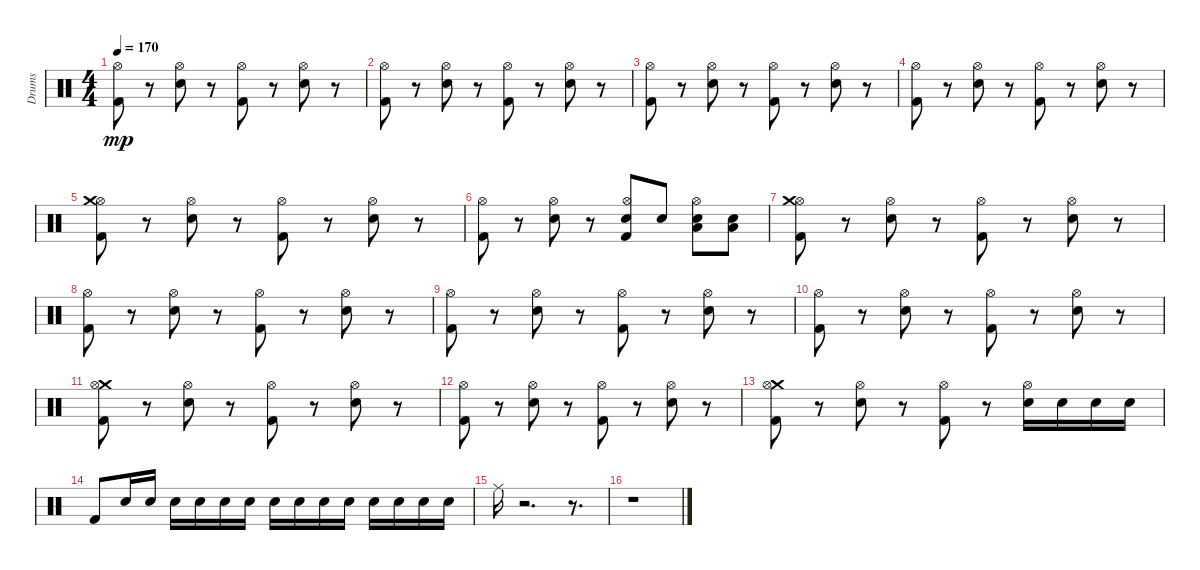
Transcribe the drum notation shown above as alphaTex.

\track ("Drums" "Drums") {instrument percussion}
\staff {score}
\articulation defaults
\ts (4 4)
\tempo 170
\clef neutral
\ks c
("Kick (hit) 2" "Hi-Hat (open)").8{dy mp} r.8 ("Electric Snare (hit)" "Hi-Hat (open)").8 r.8 ("Kick (hit) 2" "Hi-Hat (open)").8 r.8 ("Hi-Hat (open)" "Electric Snare (hit)").8 r.8 |
("Kick (hit) 2" "Hi-Hat (open)").8 r.8 ("Electric Snare (hit)" "Hi-Hat (open)").8 r.8 ("Hi-Hat (open)" "Kick (hit) 2").8 r.8 ("Hi-Hat (open)" "Electric Snare (hit)").8 r.8 |
("Kick (hit) 2" "Hi-Hat (open)").8 r.8 ("Hi-Hat (open)" "Electric Snare (hit)").8 r.8 ("Hi-Hat (open)" "Kick (hit) 2").8 r.8 ("Electric Snare (hit)" "Hi-Hat (open)").8 r.8 |
("Hi-Hat (open)" "Kick (hit) 2").8 r.8 ("Electric Snare (hit)" "Hi-Hat (open)").8 r.8 ("Kick (hit) 2" "Hi-Hat (open)").8 r.8 ("Hi-Hat (open)" "Electric Snare (hit)").8 r.8 |
("Kick (hit) 2" "Hi-Hat (open)" "Crash medium (hit)").8 r.8 ("Electric Snare (hit)" "Hi-Hat (open)").8 r.8 ("Hi-Hat (open)" "Kick (hit) 2").8 r.8 ("Electric Snare (hit)" "Hi-Hat (open)").8 r.8 |
("Hi-Hat (open)" "Kick (hit) 2").8 r.8 ("Electric Snare (hit)" "Hi-Hat (open)").8 r.8 ("Electric Snare (hit)" "Hi-Hat (open)" "Kick (hit) 2").8 "Electric Snare (hit)".8 ("Electric Snare (hit)" "Hi-Hat (open)" "Low Floor Tom (hit)").8 ("Low Floor Tom (hit)" "Electric Snare (hit)").8 |
("Kick (hit) 2" "Hi-Hat (open)" "Crash medium (hit)").8 r.8 ("Hi-Hat (open)" "Electric Snare (hit)").8 r.8 ("Kick (hit) 2" "Hi-Hat (open)").8 r.8 ("Electric Snare (hit)" "Hi-Hat (open)").8 r.8 |
("Hi-Hat (open)" "Kick (hit) 2").8 r.8 ("Electric Snare (hit)" "Hi-Hat (open)").8 r.8 ("Hi-Hat (open)" "Kick (hit) 2").8 r.8 ("Electric Snare (hit)" "Hi-Hat (open)").8 r.8 |
("Kick (hit) 2" "Hi-Hat (open)").8 r.8 ("Hi-Hat (open)" "Electric Snare (hit)").8 r.8 ("Kick (hit) 2" "Hi-Hat (open)").8 r.8 ("Electric Snare (hit)" "Hi-Hat (open)").8 r.8 |
("Hi-Hat (open)" "Kick (hit) 2").8 r.8 ("Electric Snare (hit)" "Hi-Hat (open)").8 r.8 ("Hi-Hat (open)" "Kick (hit) 2").8 r.8 ("Hi-Hat (open)" "Electric Snare (hit)").8 r.8 |
("Crash medium (hit)" "Hi-Hat (open)" "Kick (hit) 2").8 r.8 ("Hi-Hat (open)" "Electric Snare (hit)").8 r.8 ("Kick (hit) 2" "Hi-Hat (open)").8 r.8 ("Hi-Hat (open)" "Electric Snare (hit)").8 r.8 |
("Hi-Hat (open)" "Kick (hit) 2").8 r.8 ("Hi-Hat (open)" "Electric Snare (hit)").8 r.8 ("Hi-Hat (open)" "Kick (hit) 2").8 r.8 ("Hi-Hat (open)" "Electric Snare (hit)").8 r.8 |
("Kick (hit) 2" "Crash medium (hit)" "Hi-Hat (open)").8 r.8 ("Electric Snare (hit)" "Hi-Hat (open)").8 r.8 ("Hi-Hat (open)" "Kick (hit) 2").8 r.8 ("Electric Snare (hit)" "Hi-Hat (open)").16 "Electric Snare (hit)".16 "Electric Snare (hit)".16 "Electric Snare (hit)".16 |
"Kick (hit) 2".8 "Electric Snare (hit)".16 "Electric Snare (hit)".16 "Electric Snare (hit)".16 "Electric Snare (hit)".16 "Electric Snare (hit)".16 "Electric Snare (hit)".16 "Electric Snare (hit)".16 "Electric Snare (hit)".16 "Electric Snare (hit)".16 "Electric Snare (hit)".16 "Electric Snare (hit)".16 "Electric Snare (hit)".16 "Electric Snare (hit)".16 "Electric Snare (hit)".16 |
"Ride (middle)".16 r.2{d} r.8{d} |
r.1
